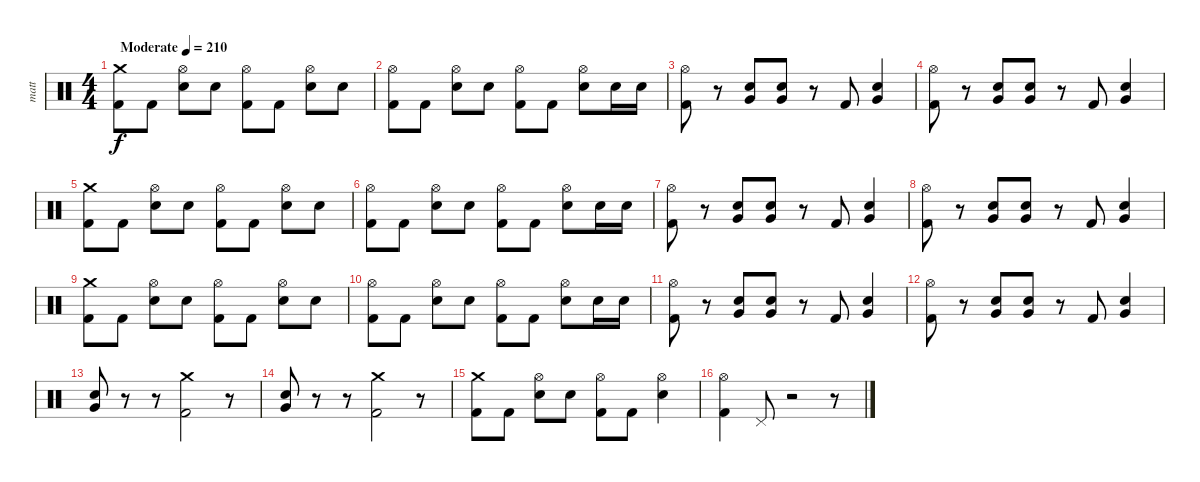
\track ("matt" "matt") {instrument percussion}
\staff {score}
\articulation defaults
\ts (4 4)
\tempo (210 "Moderate")
\clef neutral
\ks c
("Crash medium (hit)" "Kick (hit) 2").8{dy f} "Kick (hit) 2".8 ("Hi-Hat (open)" "Electric Snare (hit)").8 "Electric Snare (hit)".8 ("Hi-Hat (open)" "Kick (hit) 2").8 "Kick (hit) 2".8 ("Hi-Hat (open)" "Electric Snare (hit)").8 "Electric Snare (hit)".8 |
("Hi-Hat (open)" "Kick (hit) 2").8 "Kick (hit) 2".8 ("Hi-Hat (open)" "Electric Snare (hit)").8 "Electric Snare (hit)".8 ("Hi-Hat (open)" "Kick (hit) 2").8 "Kick (hit) 2".8 ("Hi-Hat (open)" "Electric Snare (hit)").8 "Electric Snare (hit)".16 "Electric Snare (hit)".16 |
("Hi-Hat (open)" "Kick (hit) 2").8 r.8 ("Very Low Tom (hit)" "Electric Snare (hit)").8 ("Very Low Tom (hit)" "Electric Snare (hit)").8 r.8 "Kick (hit) 2".8 ("Very Low Tom (hit)" "Electric Snare (hit)").4 |
("Hi-Hat (open)" "Kick (hit) 2").8 r.8 ("Very Low Tom (hit)" "Electric Snare (hit)").8 ("Very Low Tom (hit)" "Electric Snare (hit)").8 r.8 "Kick (hit) 2".8 ("Very Low Tom (hit)" "Electric Snare (hit)").4 |
("Crash medium (hit)" "Kick (hit) 2").8 "Kick (hit) 2".8 ("Hi-Hat (open)" "Electric Snare (hit)").8 "Electric Snare (hit)".8 ("Hi-Hat (open)" "Kick (hit) 2").8 "Kick (hit) 2".8 ("Hi-Hat (open)" "Electric Snare (hit)").8 "Electric Snare (hit)".8 |
("Hi-Hat (open)" "Kick (hit) 2").8 "Kick (hit) 2".8 ("Hi-Hat (open)" "Electric Snare (hit)").8 "Electric Snare (hit)".8 ("Hi-Hat (open)" "Kick (hit) 2").8 "Kick (hit) 2".8 ("Hi-Hat (open)" "Electric Snare (hit)").8 "Electric Snare (hit)".16 "Electric Snare (hit)".16 |
("Hi-Hat (open)" "Kick (hit) 2").8 r.8 ("Very Low Tom (hit)" "Electric Snare (hit)").8 ("Very Low Tom (hit)" "Electric Snare (hit)").8 r.8 "Kick (hit) 2".8 ("Very Low Tom (hit)" "Electric Snare (hit)").4 |
("Hi-Hat (open)" "Kick (hit) 2").8 r.8 ("Very Low Tom (hit)" "Electric Snare (hit)").8 ("Very Low Tom (hit)" "Electric Snare (hit)").8 r.8 "Kick (hit) 2".8 ("Very Low Tom (hit)" "Electric Snare (hit)").4 |
("Crash medium (hit)" "Kick (hit) 2").8 "Kick (hit) 2".8 ("Hi-Hat (open)" "Electric Snare (hit)").8 "Electric Snare (hit)".8 ("Hi-Hat (open)" "Kick (hit) 2").8 "Kick (hit) 2".8 ("Hi-Hat (open)" "Electric Snare (hit)").8 "Electric Snare (hit)".8 |
("Hi-Hat (open)" "Kick (hit) 2").8 "Kick (hit) 2".8 ("Hi-Hat (open)" "Electric Snare (hit)").8 "Electric Snare (hit)".8 ("Hi-Hat (open)" "Kick (hit) 2").8 "Kick (hit) 2".8 ("Hi-Hat (open)" "Electric Snare (hit)").8 "Electric Snare (hit)".16 "Electric Snare (hit)".16 |
("Hi-Hat (open)" "Kick (hit) 2").8 r.8 ("Very Low Tom (hit)" "Electric Snare (hit)").8 ("Very Low Tom (hit)" "Electric Snare (hit)").8 r.8 "Kick (hit) 2".8 ("Very Low Tom (hit)" "Electric Snare (hit)").4 |
("Hi-Hat (open)" "Kick (hit) 2").8 r.8 ("Very Low Tom (hit)" "Electric Snare (hit)").8 ("Very Low Tom (hit)" "Electric Snare (hit)").8 r.8 "Kick (hit) 2".8 ("Very Low Tom (hit)" "Electric Snare (hit)").4 |
("Very Low Tom (hit)" "Electric Snare (hit)").8 r.8 r.8 ("Crash medium (hit)" "Kick (hit) 2").2 r.8 |
("Very Low Tom (hit)" "Electric Snare (hit)").8 r.8 r.8 ("Crash medium (hit)" "Kick (hit) 2").2 r.8 |
("Crash medium (hit)" "Kick (hit) 2").8 "Kick (hit) 2".8 ("Hi-Hat (open)" "Electric Snare (hit)").8 "Electric Snare (hit)".8 ("Hi-Hat (open)" "Kick (hit) 2").8 "Kick (hit) 2".8 ("Hi-Hat (open)" "Electric Snare (hit)").4 |
("Hi-Hat (open)" "Kick (hit) 2").4 "Pedal Hi-Hat (hit)".8 r.2 r.8
